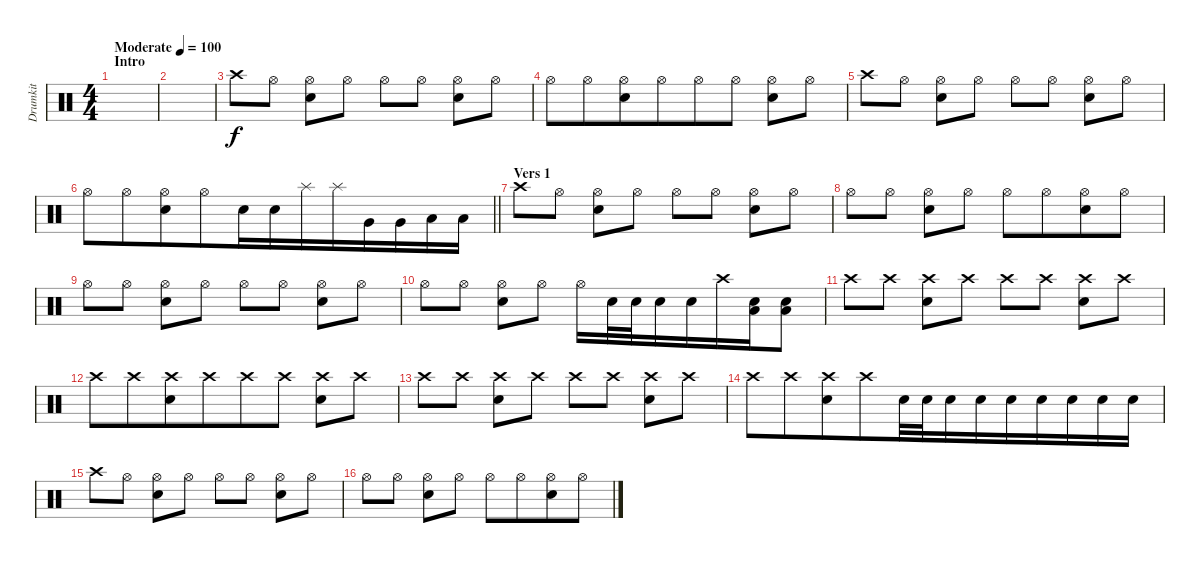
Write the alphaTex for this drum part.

\track ("Drumkit" "Drumkit") {instrument percussion}
\staff {score}
\articulation defaults
\ts (4 4)
\section ("" "Intro")
\tempo (100 "Moderate")
\clef neutral
\ks c
|
|
"Crash high (hit)".8 "Hi-Hat (open)".8 ("Hi-Hat (open)" "Electric Snare (hit)").8{beam merge} "Hi-Hat (open)".8 "Hi-Hat (open)".8 "Hi-Hat (open)".8 ("Hi-Hat (open)" "Electric Snare (hit)").8{beam merge} "Hi-Hat (open)".8 |
"Hi-Hat (open)".8{beam merge} "Hi-Hat (open)".8{beam merge} ("Hi-Hat (open)" "Electric Snare (hit)").8{beam merge} "Hi-Hat (open)".8{beam merge} "Hi-Hat (open)".8 "Hi-Hat (open)".8 ("Hi-Hat (open)" "Electric Snare (hit)").8 "Hi-Hat (open)".8 |
"Crash high (hit)".8 "Hi-Hat (open)".8 ("Hi-Hat (open)" "Electric Snare (hit)").8{beam merge} "Hi-Hat (open)".8 "Hi-Hat (open)".8 "Hi-Hat (open)".8 ("Hi-Hat (open)" "Electric Snare (hit)").8{beam merge} "Hi-Hat (open)".8 |
\barLineRight lightlight "Hi-Hat (open)".8{beam merge} "Hi-Hat (open)".8{beam merge}
("Hi-Hat (open)" "Electric Snare (hit)").8{beam merge} "Hi-Hat (open)".8{beam merge} "Electric Snare (hit)".16 "Electric Snare (hit)".16 "Splash (hit)".16 "Splash (hit)".16{beam merge} "Very Low Tom (hit)".16{beam merge} "Very Low Tom (hit)".16 "Low Floor Tom (hit)".16{beam merge} "Low Floor Tom (hit)".16 |
\section ("" "Vers 1")
"Crash high (hit)".8{beam merge} "Hi-Hat (open)".8 ("Hi-Hat (open)" "Electric Snare (hit)").8 "Hi-Hat (open)".8 "Hi-Hat (open)".8{beam merge} "Hi-Hat (open)".8 ("Hi-Hat (open)" "Electric Snare (hit)").8{beam merge} "Hi-Hat (open)".8 |
"Hi-Hat (open)".8{beam merge} "Hi-Hat (open)".8 ("Hi-Hat (open)" "Electric Snare (hit)").8 "Hi-Hat (open)".8 "Hi-Hat (open)".8{beam merge} "Hi-Hat (open)".8{beam merge} ("Hi-Hat (open)" "Electric Snare (hit)").8{beam merge} "Hi-Hat (open)".8 |
"Hi-Hat (open)".8 "Hi-Hat (open)".8 ("Hi-Hat (open)" "Electric Snare (hit)").8 "Hi-Hat (open)".8 "Hi-Hat (open)".8 "Hi-Hat (open)".8 ("Hi-Hat (open)" "Electric Snare (hit)").8{beam merge} "Hi-Hat (open)".8 |
"Hi-Hat (open)".8 "Hi-Hat (open)".8 ("Hi-Hat (open)" "Electric Snare (hit)").8{beam merge} "Hi-Hat (open)".8 "Hi-Hat (open)".16 "Electric Snare (hit)".32{beam merge} "Electric Snare (hit)".32 "Electric Snare (hit)".16 "Electric Snare (hit)".16{beam merge} "Crash high (hit)".16 ("Low Floor Tom (hit)" "Electric Snare (hit)").16 ("Low Floor Tom (hit)" "Electric Snare (hit)").8 |
"Crash high (hit)".8 "Crash high (hit)".8 ("Crash high (hit)" "Electric Snare (hit)").8{beam merge} "Crash high (hit)".8 "Crash high (hit)".8 "Crash high (hit)".8 ("Crash high (hit)" "Electric Snare (hit)").8{beam merge} "Crash high (hit)".8 |
"Crash high (hit)".8{beam merge} "Crash high (hit)".8{beam merge} ("Crash high (hit)" "Electric Snare (hit)").8{beam merge} "Crash high (hit)".8{beam merge} "Crash high (hit)".8 "Crash high (hit)".8 ("Crash high (hit)" "Electric Snare (hit)").8 "Crash high (hit)".8 |
"Crash high (hit)".8 "Crash high (hit)".8 ("Crash high (hit)" "Electric Snare (hit)").8{beam merge} "Crash high (hit)".8 "Crash high (hit)".8 "Crash high (hit)".8 ("Crash high (hit)" "Electric Snare (hit)").8{beam merge} "Crash high (hit)".8 |
"Crash high (hit)".8{beam merge} "Crash high (hit)".8{beam merge} ("Crash high (hit)" "Electric Snare (hit)").8{beam merge} "Crash high (hit)".8{beam merge} "Electric Snare (hit)".32 "Electric Snare (hit)".32 "Electric Snare (hit)".16 "Electric Snare (hit)".16{beam merge} "Electric Snare (hit)".16{beam merge} "Electric Snare (hit)".16 "Electric Snare (hit)".16{beam merge} "Electric Snare (hit)".16{beam merge} "Electric Snare (hit)".16 |
"Crash high (hit)".8{beam merge} "Hi-Hat (open)".8 ("Hi-Hat (open)" "Electric Snare (hit)").8 "Hi-Hat (open)".8 "Hi-Hat (open)".8{beam merge} "Hi-Hat (open)".8 ("Hi-Hat (open)" "Electric Snare (hit)").8{beam merge} "Hi-Hat (open)".8 |
"Hi-Hat (open)".8{beam merge} "Hi-Hat (open)".8 ("Hi-Hat (open)" "Electric Snare (hit)").8 "Hi-Hat (open)".8 "Hi-Hat (open)".8{beam merge} "Hi-Hat (open)".8{beam merge} ("Hi-Hat (open)" "Electric Snare (hit)").8{beam merge} "Hi-Hat (open)".8
